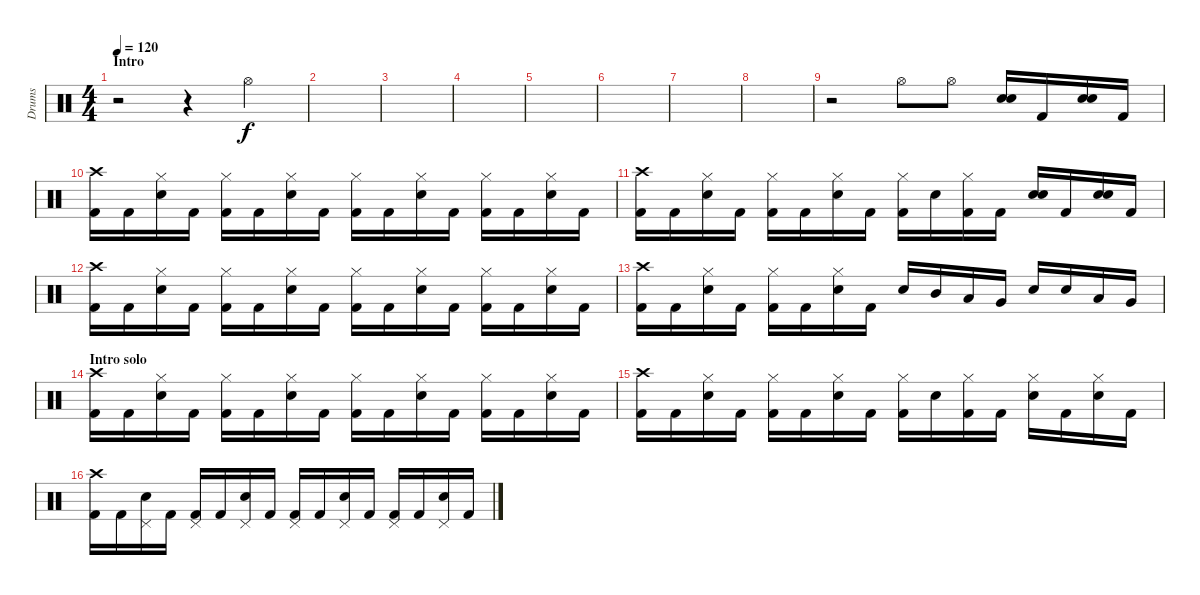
\track ("Drums" "Drums") {instrument percussion}
\staff {score}
\articulation defaults
\ts (4 4)
\section ("" "Intro")
\tempo 120
\clef neutral
\ks c
r.2{dy f} r.4 "Hi-Hat (open)".4 |
|
|
|
|
|
|
|
r.2 "Hi-Hat (open)".8 "Hi-Hat (open)".8 ("Electric Snare (hit)" "Electric Snare (hit)").16{bd 120} "Kick (hit) 2".16 ("Electric Snare (hit)" "Electric Snare (hit)").16{bd 120} "Kick (hit) 2".16 |
("Kick (hit) 2" "Crash high (hit)").16 "Kick (hit) 2".16 ("Electric Snare (hit)" "Hi-Hat (closed)").16 "Kick (hit) 2".16 ("Kick (hit) 2" "Hi-Hat (closed)").16 "Kick (hit) 2".16 ("Electric Snare (hit)" "Hi-Hat (closed)").16 "Kick (hit) 2".16 ("Kick (hit) 2" "Hi-Hat (closed)").16 "Kick (hit) 2".16 ("Electric Snare (hit)" "Hi-Hat (closed)").16 "Kick (hit) 2".16 ("Kick (hit) 2" "Hi-Hat (closed)").16 "Kick (hit) 2".16 ("Electric Snare (hit)" "Hi-Hat (closed)").16 "Kick (hit) 2".16 |
("Kick (hit) 2" "Crash high (hit)").16 "Kick (hit) 2".16 ("Electric Snare (hit)" "Hi-Hat (closed)").16 "Kick (hit) 2".16 ("Kick (hit) 2" "Hi-Hat (closed)").16 "Kick (hit) 2".16 ("Electric Snare (hit)" "Hi-Hat (closed)").16 "Kick (hit) 2".16 ("Kick (hit) 2" "Hi-Hat (closed)").16 "Electric Snare (hit)".16 ("Kick (hit) 2" "Hi-Hat (closed)").16 "Kick (hit) 2".16 ("Electric Snare (hit)" "Electric Snare (hit)").16{bd 120} "Kick (hit) 2".16 ("Electric Snare (hit)" "Electric Snare (hit)").16{bd 120} "Kick (hit) 2".16 |
("Kick (hit) 2" "Crash high (hit)").16 "Kick (hit) 2".16 ("Electric Snare (hit)" "Hi-Hat (closed)").16 "Kick (hit) 2".16 ("Kick (hit) 2" "Hi-Hat (closed)").16 "Kick (hit) 2".16 ("Electric Snare (hit)" "Hi-Hat (closed)").16 "Kick (hit) 2".16 ("Kick (hit) 2" "Hi-Hat (closed)").16 "Kick (hit) 2".16 ("Electric Snare (hit)" "Hi-Hat (closed)").16 "Kick (hit) 2".16 ("Kick (hit) 2" "Hi-Hat (closed)").16 "Kick (hit) 2".16 ("Electric Snare (hit)" "Hi-Hat (closed)").16 "Kick (hit) 2".16 |
("Kick (hit) 2" "Crash high (hit)").16 "Kick (hit) 2".16 ("Electric Snare (hit)" "Hi-Hat (closed)").16 "Kick (hit) 2".16 ("Kick (hit) 2" "Hi-Hat (closed)").16 "Kick (hit) 2".16 ("Electric Snare (hit)" "Hi-Hat (closed)").16 "Kick (hit) 2".16 "Electric Snare (hit)".16 "Mid Tom (hit)".16 "Low Tom (hit)".16 "Very Low Tom (hit)".16 "Electric Snare (hit)".16 "Electric Snare (hit)".16 "Low Tom (hit)".16 "Very Low Tom (hit)".16 |
\section ("" "Intro solo")
("Kick (hit) 2" "Crash high (hit)").16 "Kick (hit) 2".16 ("Electric Snare (hit)" "Hi-Hat (closed)").16 "Kick (hit) 2".16 ("Kick (hit) 2" "Hi-Hat (closed)").16 "Kick (hit) 2".16 ("Electric Snare (hit)" "Hi-Hat (closed)").16 "Kick (hit) 2".16 ("Kick (hit) 2" "Hi-Hat (closed)").16 "Kick (hit) 2".16 ("Electric Snare (hit)" "Hi-Hat (closed)").16 "Kick (hit) 2".16 ("Kick (hit) 2" "Hi-Hat (closed)").16 "Kick (hit) 2".16 ("Electric Snare (hit)" "Hi-Hat (closed)").16 "Kick (hit) 2".16 |
("Kick (hit) 2" "Crash high (hit)").16 "Kick (hit) 2".16 ("Electric Snare (hit)" "Hi-Hat (closed)").16 "Kick (hit) 2".16 ("Kick (hit) 2" "Hi-Hat (closed)").16 "Kick (hit) 2".16 ("Electric Snare (hit)" "Hi-Hat (closed)").16 "Kick (hit) 2".16 ("Kick (hit) 2" "Hi-Hat (closed)").16 "Electric Snare (hit)".16 ("Kick (hit) 2" "Hi-Hat (closed)").16 "Kick (hit) 2".16 ("Electric Snare (hit)" "Hi-Hat (closed)").16 "Kick (hit) 2".16 ("Electric Snare (hit)" "Hi-Hat (closed)").16 "Kick (hit) 2".16 |
("Kick (hit) 2" "Crash high (hit)").16 "Kick (hit) 2".16 ("Electric Snare (hit)" "Pedal Hi-Hat (hit)").16 "Kick (hit) 2".16 ("Kick (hit) 2" "Pedal Hi-Hat (hit)").16 "Kick (hit) 2".16 ("Electric Snare (hit)" "Pedal Hi-Hat (hit)").16 "Kick (hit) 2".16 ("Kick (hit) 2" "Pedal Hi-Hat (hit)").16 "Kick (hit) 2".16 ("Electric Snare (hit)" "Pedal Hi-Hat (hit)").16 "Kick (hit) 2".16 ("Kick (hit) 2" "Pedal Hi-Hat (hit)").16 "Kick (hit) 2".16 ("Electric Snare (hit)" "Pedal Hi-Hat (hit)").16 "Kick (hit) 2".16
